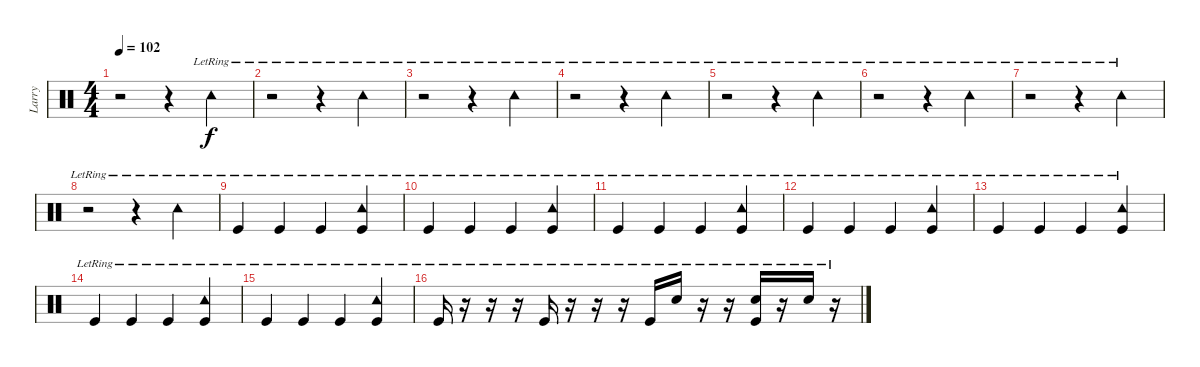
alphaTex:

\track ("Larry" "Larry") {instrument percussion}
\staff {score}
\articulation defaults
\ts (4 4)
\tempo 102
\clef neutral
\ks c
r.2{dy f} r.4 "Tambourine (hit)"{lr}.4 |
r.2 r.4 "Tambourine (hit)"{lr}.4 |
r.2 r.4 "Tambourine (hit)"{lr}.4 |
r.2 r.4 "Tambourine (hit)"{lr}.4 |
r.2 r.4 "Tambourine (hit)"{lr}.4 |
r.2 r.4 "Tambourine (hit)"{lr}.4 |
r.2 r.4 "Tambourine (hit)"{lr}.4 |
r.2 r.4 "Tambourine (hit)"{lr}.4 |
"Kick (hit)"{lr}.4 "Kick (hit)"{lr}.4 "Kick (hit)"{lr}.4 ("Tambourine (hit)"{lr} "Kick (hit)"{lr}).4 |
"Kick (hit)"{lr}.4 "Kick (hit)"{lr}.4 "Kick (hit)"{lr}.4 ("Tambourine (hit)"{lr} "Kick (hit)"{lr}).4 |
"Kick (hit)"{lr}.4 "Kick (hit)"{lr}.4 "Kick (hit)"{lr}.4 ("Tambourine (hit)"{lr} "Kick (hit)"{lr}).4 |
"Kick (hit)"{lr}.4 "Kick (hit)"{lr}.4 "Kick (hit)"{lr}.4 ("Tambourine (hit)"{lr} "Kick (hit)"{lr}).4 |
"Kick (hit)"{lr}.4 "Kick (hit)"{lr}.4 "Kick (hit)"{lr}.4 ("Tambourine (hit)"{lr} "Kick (hit)"{lr}).4 |
"Kick (hit)"{lr}.4 "Kick (hit)"{lr}.4 "Kick (hit)"{lr}.4 ("Tambourine (hit)"{lr} "Kick (hit)"{lr}).4 |
"Kick (hit)"{lr}.4 "Kick (hit)"{lr}.4 "Kick (hit)"{lr}.4 ("Tambourine (hit)"{lr} "Kick (hit)"{lr}).4 |
"Kick (hit)"{lr}.16 r.16 r.16 r.16 "Kick (hit)"{lr}.16 r.16 r.16 r.16 "Kick (hit)"{lr}.16 "Snare (hit) 2"{lr}.16 r.16 r.16 ("Snare (hit) 2"{lr} "Kick (hit)"{lr}).16 r.16 "Snare (hit) 2"{lr}.16 r.16
